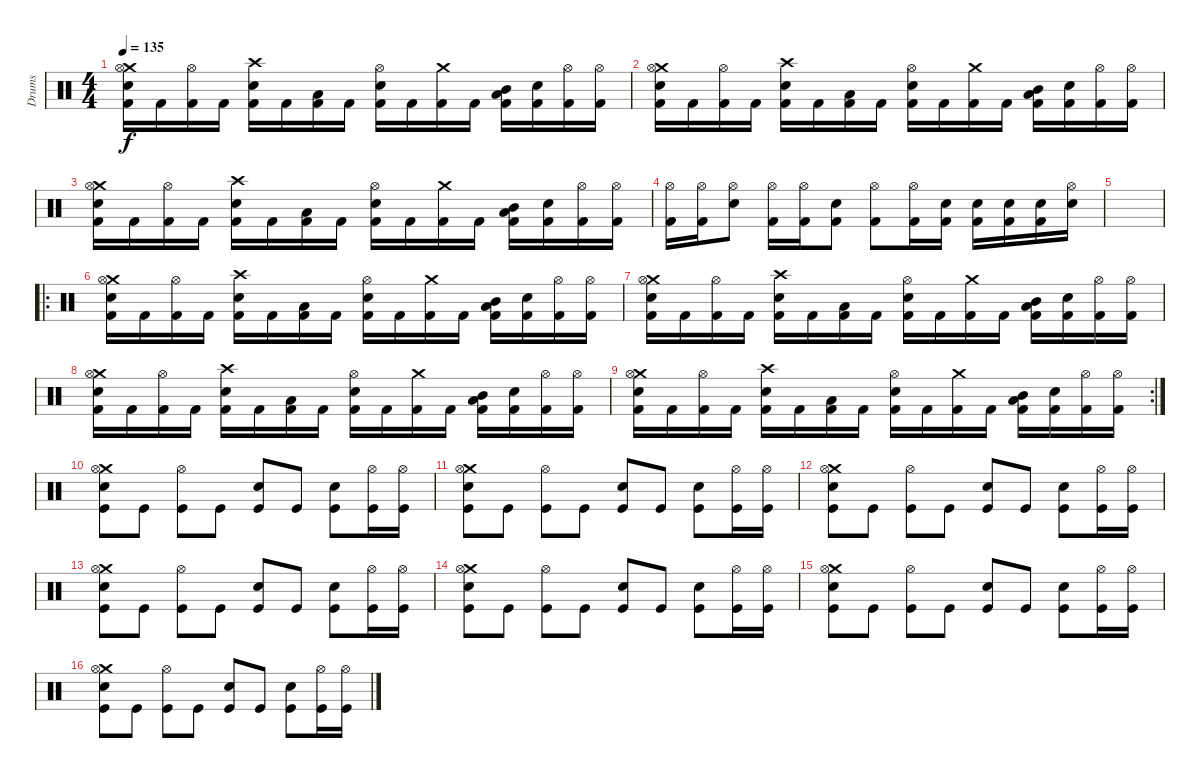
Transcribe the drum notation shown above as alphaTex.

\track ("Drums" "Drums") {instrument percussion}
\staff {score}
\articulation defaults
\ts (4 4)
\tempo 135
\clef neutral
\ks c
("Kick (hit) 2" "Crash medium (hit)" "Hi-Hat (open)" "Electric Snare (hit)").16{dy f} "Kick (hit) 2".16 ("Kick (hit) 2" "Hi-Hat (open)").16 "Kick (hit) 2".16 ("Kick (hit) 2" "Crash high (hit)" "Electric Snare (hit)").16 "Kick (hit) 2".16 ("Kick (hit) 2" "Low Floor Tom (hit)").16 "Kick (hit) 2".16 ("Kick (hit) 2" "Hi-Hat (open)" "Electric Snare (hit)").16 "Kick (hit) 2".16 ("Kick (hit) 2" "Crash medium (hit)").16 "Kick (hit) 2".16 ("Kick (hit) 2" "Low Floor Tom (hit)" "Mid Tom (hit)").16 ("Kick (hit) 2" "Electric Snare (hit)").16 ("Kick (hit) 2" "Hi-Hat (open)").16 ("Kick (hit) 2" "Hi-Hat (open)").16 |
("Kick (hit) 2" "Crash medium (hit)" "Hi-Hat (open)" "Electric Snare (hit)").16 "Kick (hit) 2".16 ("Kick (hit) 2" "Hi-Hat (open)").16 "Kick (hit) 2".16 ("Kick (hit) 2" "Crash high (hit)" "Electric Snare (hit)").16 "Kick (hit) 2".16 ("Kick (hit) 2" "Low Floor Tom (hit)").16 "Kick (hit) 2".16 ("Kick (hit) 2" "Hi-Hat (open)" "Electric Snare (hit)").16 "Kick (hit) 2".16 ("Kick (hit) 2" "Crash medium (hit)").16 "Kick (hit) 2".16 ("Kick (hit) 2" "Low Floor Tom (hit)" "Mid Tom (hit)").16 ("Kick (hit) 2" "Electric Snare (hit)").16 ("Kick (hit) 2" "Hi-Hat (open)").16 ("Kick (hit) 2" "Hi-Hat (open)").16 |
("Kick (hit) 2" "Crash medium (hit)" "Hi-Hat (open)" "Electric Snare (hit)").16 "Kick (hit) 2".16 ("Kick (hit) 2" "Hi-Hat (open)").16 "Kick (hit) 2".16 ("Kick (hit) 2" "Crash high (hit)" "Electric Snare (hit)").16 "Kick (hit) 2".16 ("Kick (hit) 2" "Low Floor Tom (hit)").16 "Kick (hit) 2".16 ("Kick (hit) 2" "Hi-Hat (open)" "Electric Snare (hit)").16 "Kick (hit) 2".16 ("Kick (hit) 2" "Crash medium (hit)").16 "Kick (hit) 2".16 ("Kick (hit) 2" "Low Floor Tom (hit)" "Mid Tom (hit)").16 ("Kick (hit) 2" "Electric Snare (hit)").16 ("Kick (hit) 2" "Hi-Hat (open)").16 ("Kick (hit) 2" "Hi-Hat (open)").16 |
("Kick (hit) 2" "Hi-Hat (open)").16 ("Kick (hit) 2" "Hi-Hat (open)").16 ("Hi-Hat (open)" "Electric Snare (hit)").8 ("Kick (hit) 2" "Hi-Hat (open)").16 ("Kick (hit) 2" "Hi-Hat (open)").16 ("Kick (hit) 2" "Electric Snare (hit)").8 ("Kick (hit) 2" "Hi-Hat (open)").8 ("Kick (hit) 2" "Hi-Hat (open)").16 ("Kick (hit) 2" "Electric Snare (hit)").16 ("Kick (hit) 2" "Electric Snare (hit)").16 ("Kick (hit) 2" "Electric Snare (hit)").16 ("Kick (hit) 2" "Electric Snare (hit)").16 ("Hi-Hat (open)" "Electric Snare (hit)").16 |
|
\ro
("Kick (hit) 2" "Crash medium (hit)" "Hi-Hat (open)" "Electric Snare (hit)").16 "Kick (hit) 2".16 ("Kick (hit) 2" "Hi-Hat (open)").16 "Kick (hit) 2".16 ("Kick (hit) 2" "Crash high (hit)" "Electric Snare (hit)").16 "Kick (hit) 2".16 ("Kick (hit) 2" "Low Floor Tom (hit)").16 "Kick (hit) 2".16 ("Kick (hit) 2" "Hi-Hat (open)" "Electric Snare (hit)").16 "Kick (hit) 2".16 ("Kick (hit) 2" "Crash medium (hit)").16 "Kick (hit) 2".16 ("Kick (hit) 2" "Low Floor Tom (hit)" "Mid Tom (hit)").16 ("Kick (hit) 2" "Electric Snare (hit)").16 ("Kick (hit) 2" "Hi-Hat (open)").16 ("Kick (hit) 2" "Hi-Hat (open)").16 |
("Kick (hit) 2" "Crash medium (hit)" "Hi-Hat (open)" "Electric Snare (hit)").16 "Kick (hit) 2".16 ("Kick (hit) 2" "Hi-Hat (open)").16 "Kick (hit) 2".16 ("Kick (hit) 2" "Crash high (hit)" "Electric Snare (hit)").16 "Kick (hit) 2".16 ("Kick (hit) 2" "Low Floor Tom (hit)").16 "Kick (hit) 2".16 ("Kick (hit) 2" "Hi-Hat (open)" "Electric Snare (hit)").16 "Kick (hit) 2".16 ("Kick (hit) 2" "Crash medium (hit)").16 "Kick (hit) 2".16 ("Kick (hit) 2" "Low Floor Tom (hit)" "Mid Tom (hit)").16 ("Kick (hit) 2" "Electric Snare (hit)").16 ("Kick (hit) 2" "Hi-Hat (open)").16 ("Kick (hit) 2" "Hi-Hat (open)").16 |
("Kick (hit) 2" "Crash medium (hit)" "Hi-Hat (open)" "Electric Snare (hit)").16 "Kick (hit) 2".16 ("Kick (hit) 2" "Hi-Hat (open)").16 "Kick (hit) 2".16 ("Kick (hit) 2" "Crash high (hit)" "Electric Snare (hit)").16 "Kick (hit) 2".16 ("Kick (hit) 2" "Low Floor Tom (hit)").16 "Kick (hit) 2".16 ("Kick (hit) 2" "Hi-Hat (open)" "Electric Snare (hit)").16 "Kick (hit) 2".16 ("Kick (hit) 2" "Crash medium (hit)").16 "Kick (hit) 2".16 ("Kick (hit) 2" "Low Floor Tom (hit)" "Mid Tom (hit)").16 ("Kick (hit) 2" "Electric Snare (hit)").16 ("Kick (hit) 2" "Hi-Hat (open)").16 ("Kick (hit) 2" "Hi-Hat (open)").16 |
\rc 2
("Kick (hit) 2" "Crash medium (hit)" "Hi-Hat (open)" "Electric Snare (hit)").16 "Kick (hit) 2".16 ("Kick (hit) 2" "Hi-Hat (open)").16 "Kick (hit) 2".16 ("Kick (hit) 2" "Crash high (hit)" "Electric Snare (hit)").16 "Kick (hit) 2".16 ("Kick (hit) 2" "Low Floor Tom (hit)").16 "Kick (hit) 2".16 ("Kick (hit) 2" "Hi-Hat (open)" "Electric Snare (hit)").16 "Kick (hit) 2".16 ("Kick (hit) 2" "Crash medium (hit)").16 "Kick (hit) 2".16 ("Kick (hit) 2" "Low Floor Tom (hit)" "Mid Tom (hit)").16 ("Kick (hit) 2" "Electric Snare (hit)").16 ("Kick (hit) 2" "Hi-Hat (open)").16 ("Kick (hit) 2" "Hi-Hat (open)").16 |
("Kick (hit)" "Crash medium (hit)" "Hi-Hat (open)" "Electric Snare (hit)").8 "Kick (hit)".8 ("Kick (hit)" "Hi-Hat (open)").8 "Kick (hit)".8 ("Kick (hit)" "Electric Snare (hit)").8 "Kick (hit)".8 ("Kick (hit)" "Electric Snare (hit)").8 ("Kick (hit)" "Hi-Hat (open)").16 ("Kick (hit)" "Hi-Hat (open)").16 |
("Kick (hit)" "Crash medium (hit)" "Hi-Hat (open)" "Electric Snare (hit)").8 "Kick (hit)".8 ("Kick (hit)" "Hi-Hat (open)").8 "Kick (hit)".8 ("Kick (hit)" "Electric Snare (hit)").8 "Kick (hit)".8 ("Kick (hit)" "Electric Snare (hit)").8 ("Kick (hit)" "Hi-Hat (open)").16 ("Kick (hit)" "Hi-Hat (open)").16 |
("Kick (hit)" "Crash medium (hit)" "Hi-Hat (open)" "Electric Snare (hit)").8 "Kick (hit)".8 ("Kick (hit)" "Hi-Hat (open)").8 "Kick (hit)".8 ("Kick (hit)" "Electric Snare (hit)").8 "Kick (hit)".8 ("Kick (hit)" "Electric Snare (hit)").8 ("Kick (hit)" "Hi-Hat (open)").16 ("Kick (hit)" "Hi-Hat (open)").16 |
("Kick (hit)" "Crash medium (hit)" "Hi-Hat (open)" "Electric Snare (hit)").8 "Kick (hit)".8 ("Kick (hit)" "Hi-Hat (open)").8 "Kick (hit)".8 ("Kick (hit)" "Electric Snare (hit)").8 "Kick (hit)".8 ("Kick (hit)" "Electric Snare (hit)").8 ("Kick (hit)" "Hi-Hat (open)").16 ("Kick (hit)" "Hi-Hat (open)").16 |
("Kick (hit)" "Crash medium (hit)" "Hi-Hat (open)" "Electric Snare (hit)").8 "Kick (hit)".8 ("Kick (hit)" "Hi-Hat (open)").8 "Kick (hit)".8 ("Kick (hit)" "Electric Snare (hit)").8 "Kick (hit)".8 ("Kick (hit)" "Electric Snare (hit)").8 ("Kick (hit)" "Hi-Hat (open)").16 ("Kick (hit)" "Hi-Hat (open)").16 |
("Kick (hit)" "Crash medium (hit)" "Hi-Hat (open)" "Electric Snare (hit)").8 "Kick (hit)".8 ("Kick (hit)" "Hi-Hat (open)").8 "Kick (hit)".8 ("Kick (hit)" "Electric Snare (hit)").8 "Kick (hit)".8 ("Kick (hit)" "Electric Snare (hit)").8 ("Kick (hit)" "Hi-Hat (open)").16 ("Kick (hit)" "Hi-Hat (open)").16 |
("Kick (hit)" "Crash medium (hit)" "Hi-Hat (open)" "Electric Snare (hit)").8 "Kick (hit)".8 ("Kick (hit)" "Hi-Hat (open)").8 "Kick (hit)".8 ("Kick (hit)" "Electric Snare (hit)").8 "Kick (hit)".8 ("Kick (hit)" "Electric Snare (hit)").8 ("Kick (hit)" "Hi-Hat (open)").16 ("Kick (hit)" "Hi-Hat (open)").16
